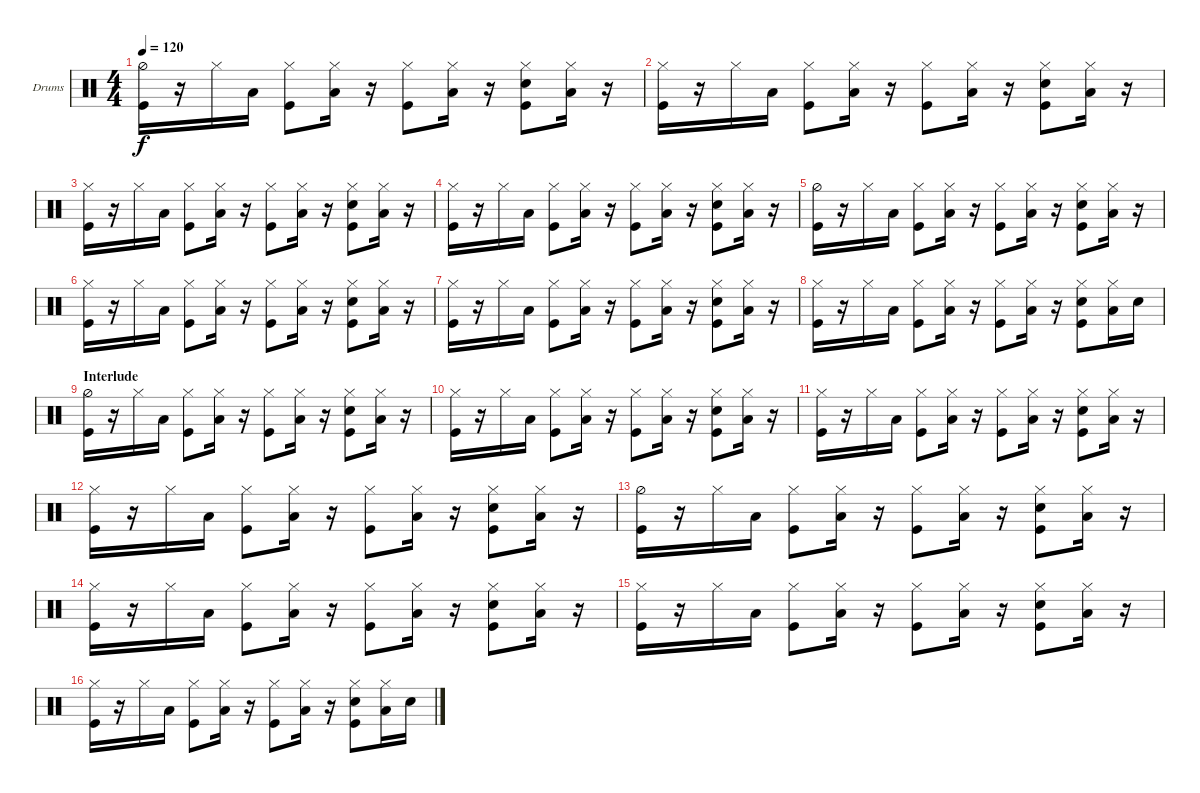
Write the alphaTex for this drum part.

\defaultSystemsLayout 4
\bracketExtendMode groupsimilarinstruments
\firstSystemTrackNameOrientation horizontal
\otherSystemsTrackNameOrientation horizontal
\track ("Drums" "Drums") {instrument percussion}
\staff {score}
\articulation defaults
\ts (4 4)
\tempo 120
\clef neutral
\ks c
("Kick (hit)" "Hi-Hat (half)").16{dy f} r.16 "Hi-Hat (closed)".16 "Low Tom (hit)".16 ("Kick (hit)" "Hi-Hat (closed)").8 ("Low Tom (hit)" "Hi-Hat (closed)").16 r.16 ("Kick (hit)" "Hi-Hat (closed)").8 ("Low Tom (hit)" "Hi-Hat (closed)").16 r.16 ("Kick (hit)" "Snare (hit) 2" "Hi-Hat (closed)").8 ("Low Tom (hit)" "Hi-Hat (closed)").16 r.16 |
("Kick (hit)" "Hi-Hat (closed)").16 r.16 "Hi-Hat (closed)".16 "Low Tom (hit)".16 ("Kick (hit)" "Hi-Hat (closed)").8 ("Low Tom (hit)" "Hi-Hat (closed)").16 r.16 ("Kick (hit)" "Hi-Hat (closed)").8 ("Low Tom (hit)" "Hi-Hat (closed)").16 r.16 ("Kick (hit)" "Snare (hit) 2" "Hi-Hat (closed)").8 ("Low Tom (hit)" "Hi-Hat (closed)").16 r.16 |
("Kick (hit)" "Hi-Hat (closed)").16 r.16 "Hi-Hat (closed)".16 "Low Tom (hit)".16 ("Kick (hit)" "Hi-Hat (closed)").8 ("Low Tom (hit)" "Hi-Hat (closed)").16 r.16 ("Kick (hit)" "Hi-Hat (closed)").8 ("Low Tom (hit)" "Hi-Hat (closed)").16 r.16 ("Kick (hit)" "Snare (hit) 2" "Hi-Hat (closed)").8 ("Low Tom (hit)" "Hi-Hat (closed)").16 r.16 |
("Kick (hit)" "Hi-Hat (closed)").16 r.16 "Hi-Hat (closed)".16 "Low Tom (hit)".16 ("Kick (hit)" "Hi-Hat (closed)").8 ("Low Tom (hit)" "Hi-Hat (closed)").16 r.16 ("Kick (hit)" "Hi-Hat (closed)").8 ("Low Tom (hit)" "Hi-Hat (closed)").16 r.16 ("Kick (hit)" "Snare (hit) 2" "Hi-Hat (closed)").8 ("Low Tom (hit)" "Hi-Hat (closed)").16 r.16 |
("Kick (hit)" "Hi-Hat (half)").16 r.16 "Hi-Hat (closed)".16 "Low Tom (hit)".16 ("Kick (hit)" "Hi-Hat (closed)").8 ("Low Tom (hit)" "Hi-Hat (closed)").16 r.16 ("Kick (hit)" "Hi-Hat (closed)").8 ("Low Tom (hit)" "Hi-Hat (closed)").16 r.16 ("Kick (hit)" "Snare (hit) 2" "Hi-Hat (closed)").8 ("Low Tom (hit)" "Hi-Hat (closed)").16 r.16 |
("Kick (hit)" "Hi-Hat (closed)").16 r.16 "Hi-Hat (closed)".16 "Low Tom (hit)".16 ("Kick (hit)" "Hi-Hat (closed)").8 ("Low Tom (hit)" "Hi-Hat (closed)").16 r.16 ("Kick (hit)" "Hi-Hat (closed)").8 ("Low Tom (hit)" "Hi-Hat (closed)").16 r.16 ("Kick (hit)" "Snare (hit) 2" "Hi-Hat (closed)").8 ("Low Tom (hit)" "Hi-Hat (closed)").16 r.16 |
("Kick (hit)" "Hi-Hat (closed)").16 r.16 "Hi-Hat (closed)".16 "Low Tom (hit)".16 ("Kick (hit)" "Hi-Hat (closed)").8 ("Low Tom (hit)" "Hi-Hat (closed)").16 r.16 ("Kick (hit)" "Hi-Hat (closed)").8 ("Low Tom (hit)" "Hi-Hat (closed)").16 r.16 ("Kick (hit)" "Snare (hit) 2" "Hi-Hat (closed)").8 ("Low Tom (hit)" "Hi-Hat (closed)").16 r.16 |
("Kick (hit)" "Hi-Hat (closed)").16 r.16 "Hi-Hat (closed)".16 "Low Tom (hit)".16 ("Kick (hit)" "Hi-Hat (closed)").8 ("Low Tom (hit)" "Hi-Hat (closed)").16 r.16 ("Kick (hit)" "Hi-Hat (closed)").8 ("Low Tom (hit)" "Hi-Hat (closed)").16 r.16 ("Kick (hit)" "Snare (hit) 2" "Hi-Hat (closed)").8 ("Low Tom (hit)" "Hi-Hat (closed)").16 "Snare (hit) 2".16 |
\section ("" "Interlude")
("Kick (hit)" "Hi-Hat (half)").16 r.16 "Hi-Hat (closed)".16 "Low Tom (hit)".16 ("Kick (hit)" "Hi-Hat (closed)").8 ("Low Tom (hit)" "Hi-Hat (closed)").16 r.16 ("Kick (hit)" "Hi-Hat (closed)").8 ("Low Tom (hit)" "Hi-Hat (closed)").16 r.16 ("Kick (hit)" "Snare (hit) 2" "Hi-Hat (closed)").8 ("Low Tom (hit)" "Hi-Hat (closed)").16 r.16 |
("Kick (hit)" "Hi-Hat (closed)").16 r.16 "Hi-Hat (closed)".16 "Low Tom (hit)".16 ("Kick (hit)" "Hi-Hat (closed)").8 ("Low Tom (hit)" "Hi-Hat (closed)").16 r.16 ("Kick (hit)" "Hi-Hat (closed)").8 ("Low Tom (hit)" "Hi-Hat (closed)").16 r.16 ("Kick (hit)" "Snare (hit) 2" "Hi-Hat (closed)").8 ("Low Tom (hit)" "Hi-Hat (closed)").16 r.16 |
("Kick (hit)" "Hi-Hat (closed)").16 r.16 "Hi-Hat (closed)".16 "Low Tom (hit)".16 ("Kick (hit)" "Hi-Hat (closed)").8 ("Low Tom (hit)" "Hi-Hat (closed)").16 r.16 ("Kick (hit)" "Hi-Hat (closed)").8 ("Low Tom (hit)" "Hi-Hat (closed)").16 r.16 ("Kick (hit)" "Snare (hit) 2" "Hi-Hat (closed)").8 ("Low Tom (hit)" "Hi-Hat (closed)").16 r.16 |
("Kick (hit)" "Hi-Hat (closed)").16 r.16 "Hi-Hat (closed)".16 "Low Tom (hit)".16 ("Kick (hit)" "Hi-Hat (closed)").8 ("Low Tom (hit)" "Hi-Hat (closed)").16 r.16 ("Kick (hit)" "Hi-Hat (closed)").8 ("Low Tom (hit)" "Hi-Hat (closed)").16 r.16 ("Kick (hit)" "Snare (hit) 2" "Hi-Hat (closed)").8 ("Low Tom (hit)" "Hi-Hat (closed)").16 r.16 |
("Kick (hit)" "Hi-Hat (half)").16 r.16 "Hi-Hat (closed)".16 "Low Tom (hit)".16 ("Kick (hit)" "Hi-Hat (closed)").8 ("Low Tom (hit)" "Hi-Hat (closed)").16 r.16 ("Kick (hit)" "Hi-Hat (closed)").8 ("Low Tom (hit)" "Hi-Hat (closed)").16 r.16 ("Kick (hit)" "Snare (hit) 2" "Hi-Hat (closed)").8 ("Low Tom (hit)" "Hi-Hat (closed)").16 r.16 |
("Kick (hit)" "Hi-Hat (closed)").16 r.16 "Hi-Hat (closed)".16 "Low Tom (hit)".16 ("Kick (hit)" "Hi-Hat (closed)").8 ("Low Tom (hit)" "Hi-Hat (closed)").16 r.16 ("Kick (hit)" "Hi-Hat (closed)").8 ("Low Tom (hit)" "Hi-Hat (closed)").16 r.16 ("Kick (hit)" "Snare (hit) 2" "Hi-Hat (closed)").8 ("Low Tom (hit)" "Hi-Hat (closed)").16 r.16 |
("Kick (hit)" "Hi-Hat (closed)").16 r.16 "Hi-Hat (closed)".16 "Low Tom (hit)".16 ("Kick (hit)" "Hi-Hat (closed)").8 ("Low Tom (hit)" "Hi-Hat (closed)").16 r.16 ("Kick (hit)" "Hi-Hat (closed)").8 ("Low Tom (hit)" "Hi-Hat (closed)").16 r.16 ("Kick (hit)" "Snare (hit) 2" "Hi-Hat (closed)").8 ("Low Tom (hit)" "Hi-Hat (closed)").16 r.16 |
("Kick (hit)" "Hi-Hat (closed)").16 r.16 "Hi-Hat (closed)".16 "Low Tom (hit)".16 ("Kick (hit)" "Hi-Hat (closed)").8 ("Low Tom (hit)" "Hi-Hat (closed)").16 r.16 ("Kick (hit)" "Hi-Hat (closed)").8 ("Low Tom (hit)" "Hi-Hat (closed)").16 r.16 ("Kick (hit)" "Snare (hit) 2" "Hi-Hat (closed)").8 ("Low Tom (hit)" "Hi-Hat (closed)").16 "Snare (hit) 2".16
